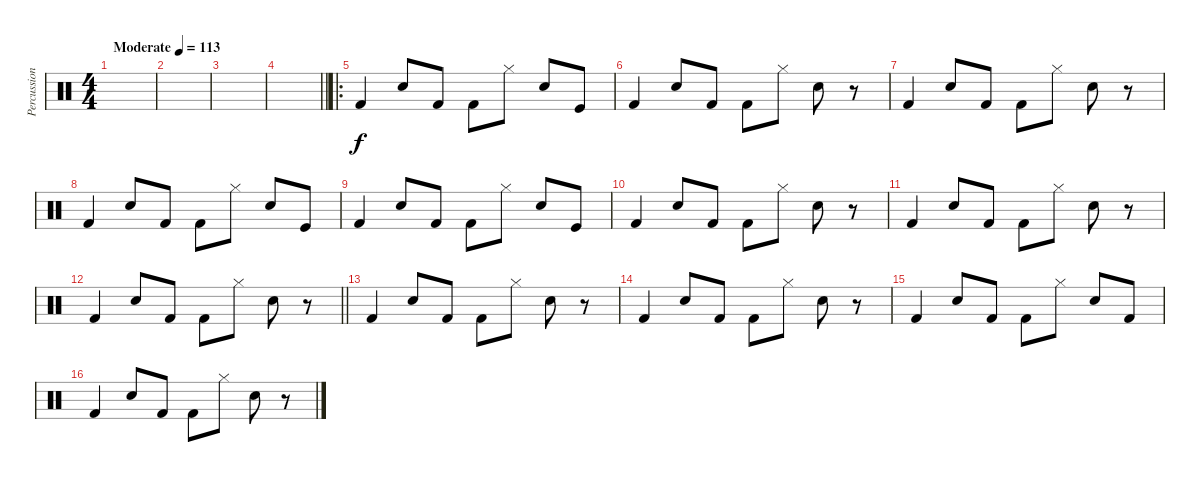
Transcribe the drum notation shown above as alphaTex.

\track ("Percussion" "Percussion") {instrument percussion}
\staff {score}
\articulation defaults
\ts (4 4)
\tempo (113 "Moderate")
\clef neutral
\ks c
|
|
|
\barLineRight lightlight
|
\ro "Kick (hit) 2".4 "Snare (hit) 2".8 "Kick (hit) 2".8 "Kick (hit) 2".8 "Hi-Hat (closed)".8 "Snare (hit) 2".8 "Kick (hit)".8
|
"Kick (hit) 2".4 "Snare (hit) 2".8 "Kick (hit) 2".8 "Kick (hit) 2".8 "Hi-Hat (closed)".8 "Snare (hit) 2".8 r.8 |
"Kick (hit) 2".4 "Snare (hit) 2".8 "Kick (hit) 2".8 "Kick (hit) 2".8 "Hi-Hat (closed)".8 "Snare (hit) 2".8 r.8 |
"Kick (hit) 2".4 "Snare (hit) 2".8 "Kick (hit) 2".8 "Kick (hit) 2".8 "Hi-Hat (closed)".8 "Snare (hit) 2".8 "Kick (hit)".8 |
"Kick (hit) 2".4 "Snare (hit) 2".8 "Kick (hit) 2".8 "Kick (hit) 2".8 "Hi-Hat (closed)".8 "Snare (hit) 2".8 "Kick (hit)".8 |
"Kick (hit) 2".4 "Snare (hit) 2".8 "Kick (hit) 2".8 "Kick (hit) 2".8 "Hi-Hat (closed)".8 "Snare (hit) 2".8 r.8 |
"Kick (hit) 2".4 "Snare (hit) 2".8 "Kick (hit) 2".8 "Kick (hit) 2".8 "Hi-Hat (closed)".8 "Snare (hit) 2".8 r.8 |
\barLineRight lightlight "Kick (hit) 2".4 "Snare (hit) 2".8 "Kick (hit) 2".8 "Kick (hit) 2".8 "Hi-Hat (closed)".8 "Snare (hit) 2".8
r.8 |
"Kick (hit) 2".4 "Snare (hit) 2".8 "Kick (hit) 2".8 "Kick (hit) 2".8 "Hi-Hat (closed)".8 "Snare (hit) 2".8 r.8 |
"Kick (hit) 2".4 "Snare (hit) 2".8 "Kick (hit) 2".8 "Kick (hit) 2".8 "Hi-Hat (closed)".8 "Snare (hit) 2".8 r.8 |
"Kick (hit) 2".4 "Snare (hit) 2".8 "Kick (hit) 2".8 "Kick (hit) 2".8 "Hi-Hat (closed)".8 "Snare (hit) 2".8 "Kick (hit) 2".8 |
"Kick (hit) 2".4 "Snare (hit) 2".8 "Kick (hit) 2".8 "Kick (hit) 2".8 "Hi-Hat (closed)".8 "Snare (hit) 2".8 r.8
